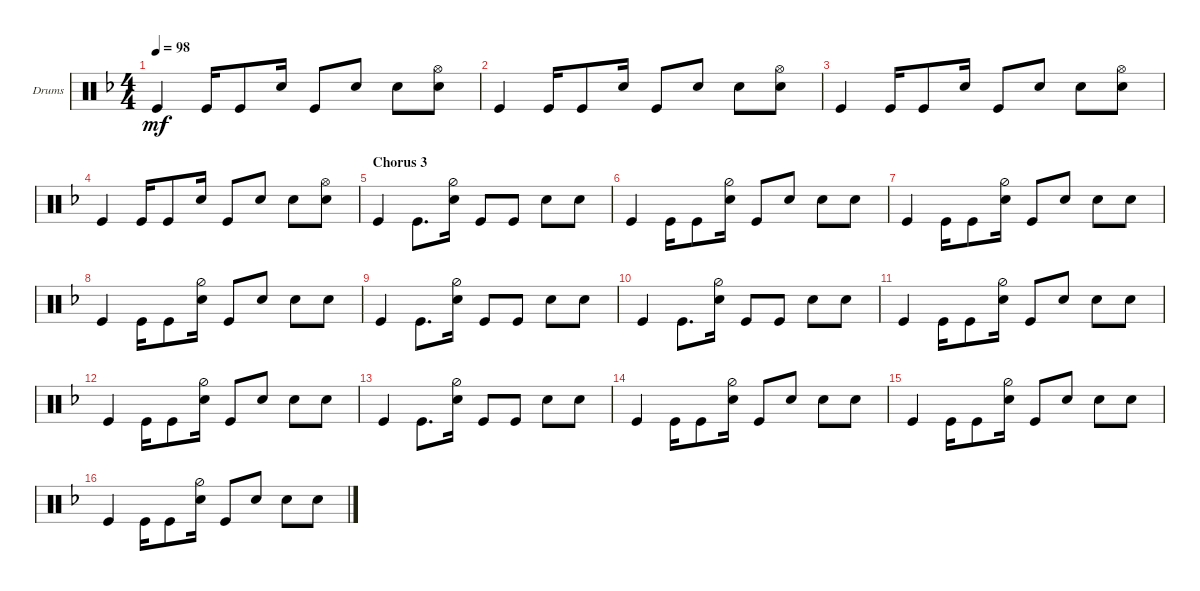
\defaultSystemsLayout 4
\bracketExtendMode groupsimilarinstruments
\firstSystemTrackNameOrientation horizontal
\otherSystemsTrackNameOrientation horizontal
\track ("Drumkit" "Drums") {instrument percussion}
\staff {score}
\articulation defaults
\ts (4 4)
\tempo 98
\clef neutral
\scale
0.333333
\ks dminor "Kick (hit)".4{dy mf} "Kick (hit)".16 "Kick (hit)".8 "Snare (hit) 2".16 "Kick (hit)".8 "Snare (hit) 2".8 "Snare (hit) 2".8
("Snare (hit) 2" "Hi-Hat (open)").8 |
\scale
0.333333 "Kick (hit)".4 "Kick (hit)".16 "Kick (hit)".8 "Snare (hit) 2".16 "Kick (hit)".8 "Snare (hit) 2".8 "Snare (hit) 2".8 ("Snare (hit) 2" "Hi-Hat (open)").8 |
\scale
0.333333 "Kick (hit)".4 "Kick (hit)".16 "Kick (hit)".8 "Snare (hit) 2".16 "Kick (hit)".8 "Snare (hit) 2".8 "Snare (hit) 2".8 ("Snare (hit) 2" "Hi-Hat (open)").8 |
\scale
0.333333 "Kick (hit)".4 "Kick (hit)".16 "Kick (hit)".8 "Snare (hit) 2".16 "Kick (hit)".8 "Snare (hit) 2".8 "Snare (hit) 2".8 ("Snare (hit) 2" "Hi-Hat (open)").8 |
\section ("" "Chorus 3")
\scale
0.333333 "Kick (hit)".4 "Kick (hit)".8{d} ("Snare (hit) 2" "Hi-Hat (half)").16 "Kick (hit)".8 "Kick (hit)".8 "Snare (hit) 2".8 "Snare (hit) 2".8 |
\scale
0.333333 "Kick (hit)".4 "Kick (hit)".16 "Kick (hit)".8 ("Snare (hit) 2" "Hi-Hat (half)").16 "Kick (hit)".8 "Snare (hit) 2".8 "Snare (hit) 2".8 "Snare (hit) 2".8 |
\scale
0.333333 "Kick (hit)".4 "Kick (hit)".16 "Kick (hit)".8 ("Snare (hit) 2" "Hi-Hat (half)").16 "Kick (hit)".8 "Snare (hit) 2".8 "Snare (hit) 2".8 "Snare (hit) 2".8 |
\scale
0.333333 "Kick (hit)".4 "Kick (hit)".16 "Kick (hit)".8 ("Snare (hit) 2" "Hi-Hat (half)").16 "Kick (hit)".8 "Snare (hit) 2".8 "Snare (hit) 2".8 "Snare (hit) 2".8 |
\scale
0.333333 "Kick (hit)".4 "Kick (hit)".8{d} ("Snare (hit) 2" "Hi-Hat (half)").16 "Kick (hit)".8 "Kick (hit)".8 "Snare (hit) 2".8 "Snare (hit) 2".8 |
\scale
0.333333 "Kick (hit)".4 "Kick (hit)".8{d} ("Snare (hit) 2" "Hi-Hat (half)").16 "Kick (hit)".8 "Kick (hit)".8 "Snare (hit) 2".8 "Snare (hit) 2".8 |
\scale
0.333333 "Kick (hit)".4 "Kick (hit)".16 "Kick (hit)".8 ("Snare (hit) 2" "Hi-Hat (half)").16 "Kick (hit)".8 "Snare (hit) 2".8 "Snare (hit) 2".8 "Snare (hit) 2".8 |
\scale
0.333333 "Kick (hit)".4 "Kick (hit)".16 "Kick (hit)".8 ("Snare (hit) 2" "Hi-Hat (half)").16 "Kick (hit)".8 "Snare (hit) 2".8 "Snare (hit) 2".8 "Snare (hit) 2".8 |
\scale
0.333333 "Kick (hit)".4 "Kick (hit)".8{d} ("Snare (hit) 2" "Hi-Hat (half)").16 "Kick (hit)".8 "Kick (hit)".8 "Snare (hit) 2".8 "Snare (hit) 2".8 |
\scale
0.333333 "Kick (hit)".4 "Kick (hit)".16 "Kick (hit)".8 ("Snare (hit) 2" "Hi-Hat (half)").16 "Kick (hit)".8 "Snare (hit) 2".8 "Snare (hit) 2".8 "Snare (hit) 2".8 |
\scale
0.333333 "Kick (hit)".4 "Kick (hit)".16 "Kick (hit)".8 ("Snare (hit) 2" "Hi-Hat (half)").16 "Kick (hit)".8 "Snare (hit) 2".8 "Snare (hit) 2".8 "Snare (hit) 2".8 |
\scale
0.333333 "Kick (hit)".4 "Kick (hit)".16 "Kick (hit)".8 ("Snare (hit) 2" "Hi-Hat (half)").16 "Kick (hit)".8 "Snare (hit) 2".8 "Snare (hit) 2".8 "Snare (hit) 2".8
